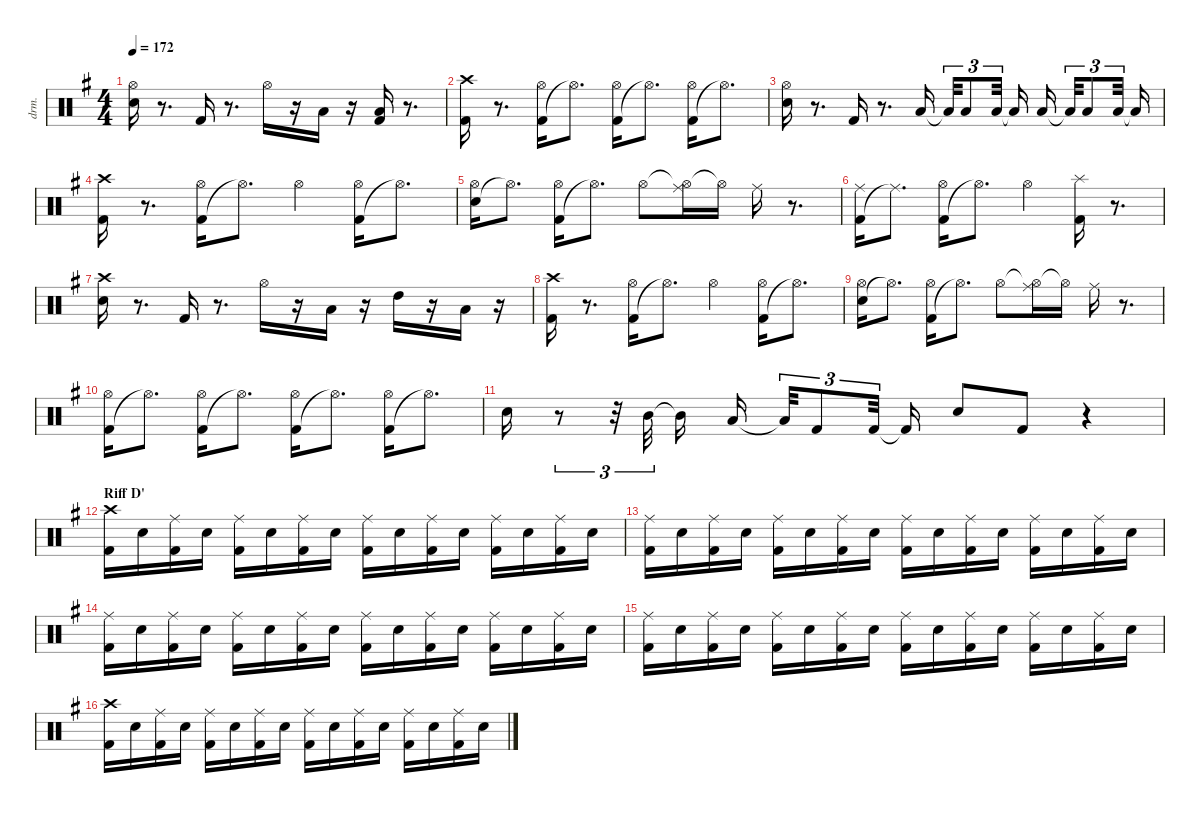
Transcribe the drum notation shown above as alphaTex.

\defaultSystemsLayout 4
\hideDynamics
\bracketExtendMode nobrackets
\otherSystemsTrackNameOrientation horizontal
\track ("Shinya" "drm.") {instrument percussion}
\staff {score}
\articulation defaults
\ts (4 4)
\tempo 172
\clef neutral
\ks eminor
("Snare (hit) 2"{acc forcenatural} "Hi-Hat (open)"{acc #}).16{dy fff beam Down} r.8{d beam Down} "Kick (hit) 2"{acc forcenatural}.16{beam Up} r.8{d beam Up} "Hi-Hat (open)"{acc #}.16{beam Down} r.16{beam Down} "Low Tom (hit)"{acc forcenatural}.16{beam Down} r.16{beam Down} ("Kick (hit) 2"{acc forcenatural} "Low Tom (hit)"{acc forcenatural}).16{beam Up} r.8{d beam Up} |
("Kick (hit) 2"{acc forcenatural} "Crash high (hit)"{acc #}).16{beam Down} r.8{d beam Down} ("Kick (hit) 2"{acc forcenatural} "Hi-Hat (open)"{acc #}).16{beam Down} "Hi-Hat (open)"{t acc #}.8{d beam Down} ("Kick (hit) 2"{acc forcenatural} "Hi-Hat (open)"{acc #}).16{beam Down} "Hi-Hat (open)"{t acc #}.8{d beam Down} ("Kick (hit) 2"{acc forcenatural} "Hi-Hat (open)"{acc #}).16{beam Down} "Hi-Hat (open)"{t acc #}.8{d beam Down} |
("Snare (hit) 2"{acc forcenatural} "Hi-Hat (open)"{acc #}).16{beam Down} r.8{d beam Down} "Kick (hit) 2"{acc forcenatural}.16{beam Up} r.8{d beam Up} "Low Tom (hit)"{acc forcenatural}.16{dy mf beam Up} "Low Tom (hit)"{t acc forcenatural}.32{tu (3 2) beam Up} "Low Tom (hit)"{acc forcenatural}.8{tu (3 2) dy f beam Up} "Low Tom (hit)"{acc forcenatural}.32{tu (3 2) dy fff beam Up} "Low Tom (hit)"{t acc forcenatural}.16{beam Up} "Low Tom (hit)"{acc forcenatural}.16{beam Up} "Low Tom (hit)"{t acc forcenatural}.32{tu (3 2) beam Up} "Low Tom (hit)"{acc forcenatural}.8{tu (3 2) beam Up} "Low Tom (hit)"{acc forcenatural}.32{tu (3 2) beam Up} "Low Tom (hit)"{t acc forcenatural}.16{beam Up} |
("Kick (hit) 2"{acc forcenatural} "Crash high (hit)"{acc #}).16{beam Down} r.8{d beam Down} ("Kick (hit) 2"{acc forcenatural} "Hi-Hat (open)"{acc #}).16{beam Down} "Hi-Hat (open)"{t acc #}.8{d beam Down} "Hi-Hat (open)"{acc #}.4{beam Down} ("Kick (hit) 2"{acc forcenatural} "Hi-Hat (open)"{acc #}).16{beam Down} "Hi-Hat (open)"{t acc #}.8{d beam Down} |
("Snare (hit) 2"{acc forcenatural} "Hi-Hat (open)"{acc #}).16{beam Down} "Hi-Hat (open)"{t acc #}.8{d beam Down} ("Kick (hit) 2"{acc forcenatural} "Hi-Hat (open)"{acc #}).16{beam Down} "Hi-Hat (open)"{t acc #}.8{d beam Down} "Hi-Hat (open)"{acc #}.8{beam Down} ("Hi-Hat (open)"{t acc #} "Ride (middle)"{acc #}).16{beam Down} "Hi-Hat (open)"{t acc #}.16{beam Down} "Ride (middle)"{acc #}.16{beam Down} r.8{d beam Down} |
("Kick (hit) 2"{acc forcenatural} "Ride (middle)"{acc #}).16{beam Down} "Ride (middle)"{t acc #}.8{d beam Down} ("Kick (hit) 2"{acc forcenatural} "Hi-Hat (open)"{acc #}).16{beam Down} "Hi-Hat (open)"{t acc #}.8{d beam Down} "Hi-Hat (open)"{acc #}.4{beam Down} ("Kick (hit) 2"{acc forcenatural} "Splash (hit)"{acc forcenatural}).16{beam Down} r.8{d beam Down} |
("Snare (hit) 2"{acc forcenatural} "Crash high (hit)"{acc #}).16{beam Down} r.8{d beam Down} "Kick (hit) 2"{acc forcenatural}.16{beam Up} r.8{d beam Up} "Hi-Hat (open)"{acc #}.16{beam Down} r.16{beam Down} "Low Tom (hit)"{acc forcenatural}.16{beam Down} r.16{beam Down} "High Tom (hit)"{acc forcenatural}.16{beam Down} r.16{beam Down} "Low Tom (hit)"{acc forcenatural}.16{beam Down} r.16{beam Down} |
("Kick (hit) 2"{acc forcenatural} "Crash high (hit)"{acc #}).16{beam Down} r.8{d beam Down} ("Kick (hit) 2"{acc forcenatural} "Hi-Hat (open)"{acc #}).16{beam Down} "Hi-Hat (open)"{t acc #}.8{d beam Down} "Hi-Hat (open)"{acc #}.4{beam Down} ("Kick (hit) 2"{acc forcenatural} "Hi-Hat (open)"{acc #}).16{beam Down} "Hi-Hat (open)"{t acc #}.8{d beam Down} |
("Snare (hit) 2"{acc forcenatural} "Hi-Hat (open)"{acc #}).16{beam Down} "Hi-Hat (open)"{t acc #}.8{d beam Down} ("Kick (hit) 2"{acc forcenatural} "Hi-Hat (open)"{acc #}).16{beam Down} "Hi-Hat (open)"{t acc #}.8{d dy ff beam Down} "Hi-Hat (open)"{acc #}.8{dy fff beam Down} ("Hi-Hat (open)"{t acc #} "Ride (middle)"{acc #}).16{beam Down} "Hi-Hat (open)"{t acc #}.16{beam Down} "Ride (middle)"{acc #}.16{beam Down} r.8{d beam Down} |
("Kick (hit) 2"{acc forcenatural} "Hi-Hat (open)"{acc #}).16{beam Down} "Hi-Hat (open)"{t acc #}.8{d dy ff beam Down} ("Kick (hit) 2"{acc forcenatural} "Hi-Hat (open)"{acc #}).16{dy fff beam Down} "Hi-Hat (open)"{t acc #}.8{d beam Down} ("Kick (hit) 2"{acc forcenatural} "Hi-Hat (open)"{acc #}).16{beam Down} "Hi-Hat (open)"{t acc #}.8{d dy ff beam Down} ("Kick (hit) 2"{acc forcenatural} "Hi-Hat (open)"{acc #}).16{dy fff beam Down} "Hi-Hat (open)"{t acc #}.8{d beam Down} |
"Snare (hit) 2"{acc forcenatural}.16{beam Down} r.8{tu (3 2) beam Down} r.32{tu (3 2) beam Down} "Mid Tom (hit)"{acc forcenatural}.32{tu (3 2) beam Down} "Mid Tom (hit)"{t acc forcenatural}.16{beam Down} "Low Tom (hit)"{acc forcenatural}.16{beam Up} "Low Tom (hit)"{t acc forcenatural}.32{tu (3 2) beam Up} "Kick (hit) 2"{acc forcenatural}.8{tu (3 2) beam Up} "Kick (hit) 2"{acc forcenatural}.32{tu (3 2) beam Up} "Kick (hit) 2"{t acc forcenatural}.16{beam Up} "Snare (hit) 2"{acc forcenatural}.8{beam Up} "Kick (hit) 2"{acc forcenatural}.8{beam Up} r.4{beam Up} |
\section ("" "Riff D'")
("Kick (hit) 2"{acc forcenatural} "Crash high (hit)"{acc #}).16{beam Down} "Snare (hit) 2"{acc forcenatural}.16{beam Down} ("Kick (hit) 2"{acc forcenatural} "Ride (middle)"{acc #}).16{beam Down} "Snare (hit) 2"{acc forcenatural}.16{beam Down} ("Kick (hit) 2"{acc forcenatural} "Ride (middle)"{acc #}).16{beam Down} "Snare (hit) 2"{acc forcenatural}.16{beam Down} ("Kick (hit) 2"{acc forcenatural} "Ride (middle)"{acc #}).16{beam Down} "Snare (hit) 2"{acc forcenatural}.16{beam Down} ("Kick (hit) 2"{acc forcenatural} "Ride (middle)"{acc #}).16{beam Down} "Snare (hit) 2"{acc forcenatural}.16{beam Down} ("Kick (hit) 2"{acc forcenatural} "Ride (middle)"{acc #}).16{beam Down} "Snare (hit) 2"{acc forcenatural}.16{beam Down} ("Kick (hit) 2"{acc forcenatural} "Ride (middle)"{acc #}).16{beam Down} "Snare (hit) 2"{acc forcenatural}.16{beam Down} ("Kick (hit) 2"{acc forcenatural} "Ride (middle)"{acc #}).16{beam Down} "Snare (hit) 2"{acc forcenatural}.16{beam Down} |
("Kick (hit) 2"{acc forcenatural} "Ride (middle)"{acc #}).16{beam Down} "Snare (hit) 2"{acc forcenatural}.16{beam Down} ("Kick (hit) 2"{acc forcenatural} "Ride (middle)"{acc #}).16{beam Down} "Snare (hit) 2"{acc forcenatural}.16{beam Down} ("Kick (hit) 2"{acc forcenatural} "Ride (middle)"{acc #}).16{beam Down} "Snare (hit) 2"{acc forcenatural}.16{beam Down} ("Kick (hit) 2"{acc forcenatural} "Ride (middle)"{acc #}).16{beam Down} "Snare (hit) 2"{acc forcenatural}.16{beam Down} ("Kick (hit) 2"{acc forcenatural} "Ride (middle)"{acc #}).16{beam Down} "Snare (hit) 2"{acc forcenatural}.16{beam Down} ("Kick (hit) 2"{acc forcenatural} "Ride (middle)"{acc #}).16{beam Down} "Snare (hit) 2"{acc forcenatural}.16{beam Down} ("Kick (hit) 2"{acc forcenatural} "Ride (middle)"{acc #}).16{beam Down} "Snare (hit) 2"{acc forcenatural}.16{beam Down} ("Kick (hit) 2"{acc forcenatural} "Ride (middle)"{acc #}).16{beam Down} "Snare (hit) 2"{acc forcenatural}.16{beam Down} |
("Kick (hit) 2"{acc forcenatural} "Ride (middle)"{acc #}).16{beam Down} "Snare (hit) 2"{acc forcenatural}.16{beam Down} ("Kick (hit) 2"{acc forcenatural} "Ride (middle)"{acc #}).16{beam Down} "Snare (hit) 2"{acc forcenatural}.16{beam Down} ("Kick (hit) 2"{acc forcenatural} "Ride (middle)"{acc #}).16{beam Down} "Snare (hit) 2"{acc forcenatural}.16{beam Down} ("Kick (hit) 2"{acc forcenatural} "Ride (middle)"{acc #}).16{beam Down} "Snare (hit) 2"{acc forcenatural}.16{beam Down} ("Kick (hit) 2"{acc forcenatural} "Ride (middle)"{acc #}).16{beam Down} "Snare (hit) 2"{acc forcenatural}.16{beam Down} ("Kick (hit) 2"{acc forcenatural} "Ride (middle)"{acc #}).16{beam Down} "Snare (hit) 2"{acc forcenatural}.16{beam Down} ("Kick (hit) 2"{acc forcenatural} "Ride (middle)"{acc #}).16{beam Down} "Snare (hit) 2"{acc forcenatural}.16{beam Down} ("Kick (hit) 2"{acc forcenatural} "Ride (middle)"{acc #}).16{beam Down} "Snare (hit) 2"{acc forcenatural}.16{beam Down} |
("Kick (hit) 2"{acc forcenatural} "Ride (middle)"{acc #}).16{beam Down} "Snare (hit) 2"{acc forcenatural}.16{beam Down} ("Kick (hit) 2"{acc forcenatural} "Ride (middle)"{acc #}).16{beam Down} "Snare (hit) 2"{acc forcenatural}.16{beam Down} ("Kick (hit) 2"{acc forcenatural} "Ride (middle)"{acc #}).16{beam Down} "Snare (hit) 2"{acc forcenatural}.16{beam Down} ("Kick (hit) 2"{acc forcenatural} "Ride (middle)"{acc #}).16{beam Down} "Snare (hit) 2"{acc forcenatural}.16{beam Down} ("Kick (hit) 2"{acc forcenatural} "Ride (middle)"{acc #}).16{beam Down} "Snare (hit) 2"{acc forcenatural}.16{beam Down} ("Kick (hit) 2"{acc forcenatural} "Ride (middle)"{acc #}).16{beam Down} "Snare (hit) 2"{acc forcenatural}.16{beam Down} ("Kick (hit) 2"{acc forcenatural} "Ride (middle)"{acc #}).16{beam Down} "Snare (hit) 2"{acc forcenatural}.16{beam Down} ("Kick (hit) 2"{acc forcenatural} "Ride (middle)"{acc #}).16{beam Down} "Snare (hit) 2"{acc forcenatural}.16{beam Down} |
("Kick (hit) 2"{acc forcenatural} "Crash high (hit)"{acc #}).16{beam Down} "Snare (hit) 2"{acc forcenatural}.16{beam Down} ("Kick (hit) 2"{acc forcenatural} "Ride (middle)"{acc #}).16{beam Down} "Snare (hit) 2"{acc forcenatural}.16{beam Down} ("Kick (hit) 2"{acc forcenatural} "Ride (middle)"{acc #}).16{beam Down} "Snare (hit) 2"{acc forcenatural}.16{beam Down} ("Kick (hit) 2"{acc forcenatural} "Ride (middle)"{acc #}).16{beam Down} "Snare (hit) 2"{acc forcenatural}.16{beam Down} ("Kick (hit) 2"{acc forcenatural} "Ride (middle)"{acc #}).16{beam Down} "Snare (hit) 2"{acc forcenatural}.16{beam Down} ("Kick (hit) 2"{acc forcenatural} "Ride (middle)"{acc #}).16{beam Down} "Snare (hit) 2"{acc forcenatural}.16{beam Down} ("Kick (hit) 2"{acc forcenatural} "Ride (middle)"{acc #}).16{beam Down} "Snare (hit) 2"{acc forcenatural}.16{beam Down} ("Kick (hit) 2"{acc forcenatural} "Ride (middle)"{acc #}).16{beam Down} "Snare (hit) 2"{acc forcenatural}.16{beam Down}
